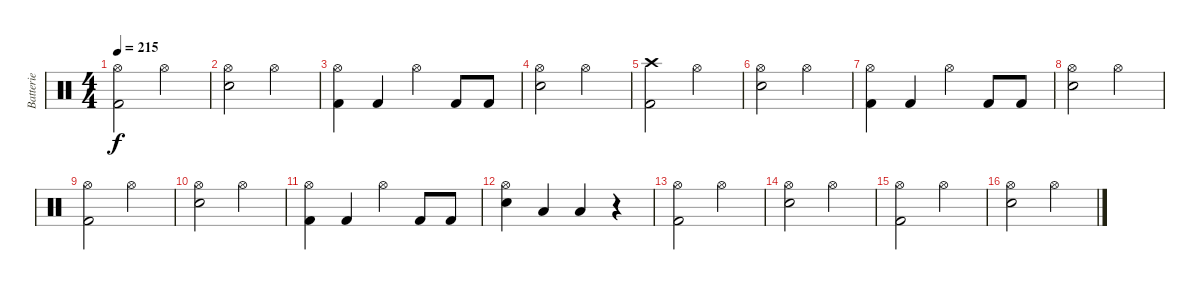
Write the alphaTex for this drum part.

\track ("Batterie" "Batterie") {instrument percussion}
\staff {score}
\articulation defaults
\ts (4 4)
\tempo 215
\clef neutral
\ks c
("Hi-Hat (open)" "Kick (hit) 2").2{dy f} "Hi-Hat (open)".2 |
("Hi-Hat (open)" "Electric Snare (hit)").2 "Hi-Hat (open)".2 |
("Hi-Hat (open)" "Kick (hit) 2").4 "Kick (hit) 2".4 "Hi-Hat (open)".4 "Kick (hit) 2".8 "Kick (hit) 2".8 |
("Hi-Hat (open)" "Electric Snare (hit)").2 "Hi-Hat (open)".2 |
("Crash high (hit)" "Kick (hit) 2").2 "Hi-Hat (open)".2 |
("Hi-Hat (open)" "Electric Snare (hit)").2 "Hi-Hat (open)".2 |
("Hi-Hat (open)" "Kick (hit) 2").4 "Kick (hit) 2".4 "Hi-Hat (open)".4 "Kick (hit) 2".8 "Kick (hit) 2".8 |
("Hi-Hat (open)" "Electric Snare (hit)").2 "Hi-Hat (open)".2 |
("Hi-Hat (open)" "Kick (hit) 2").2 "Hi-Hat (open)".2 |
("Hi-Hat (open)" "Electric Snare (hit)").2 "Hi-Hat (open)".2 |
("Hi-Hat (open)" "Kick (hit) 2").4 "Kick (hit) 2".4 "Hi-Hat (open)".4 "Kick (hit) 2".8 "Kick (hit) 2".8 |
("Hi-Hat (open)" "Electric Snare (hit)").4 "Low Floor Tom (hit)".4 "Low Tom (hit)".4 r.4 |
("Hi-Hat (open)" "Kick (hit) 2").2 "Hi-Hat (open)".2 |
("Hi-Hat (open)" "Electric Snare (hit)").2 "Hi-Hat (open)".2 |
("Hi-Hat (open)" "Kick (hit) 2").2 "Hi-Hat (open)".2 |
("Hi-Hat (open)" "Electric Snare (hit)").2 "Hi-Hat (open)".2
